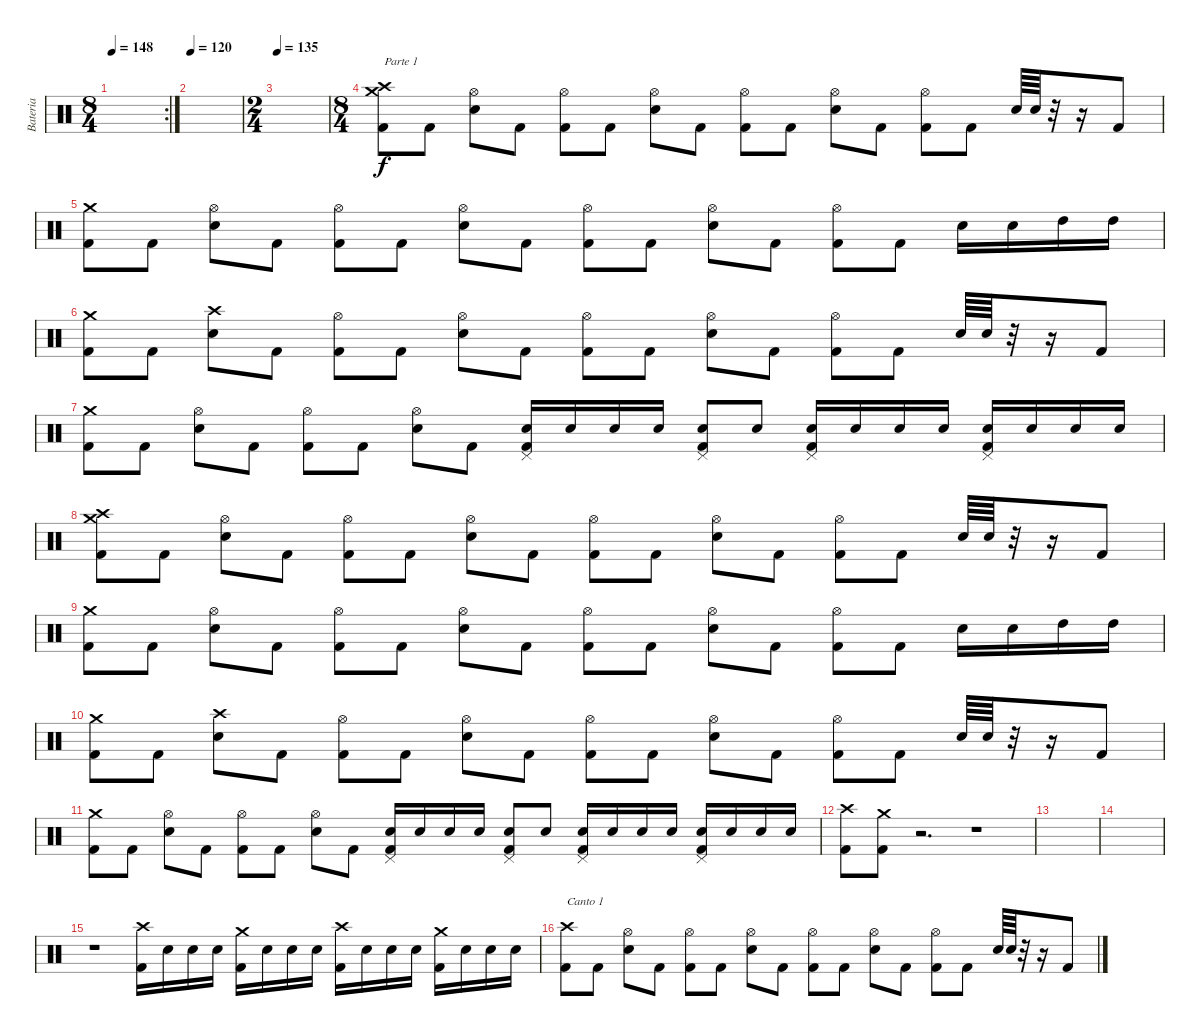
\track ("Bateria" "Bateria") {instrument percussion}
\staff {score}
\articulation defaults
\rc 2
\ts (8 4)
\tempo 148
\tempo 120
\tempo 148
\clef neutral
\ks c
|
\tempo 120
|
\ts (2 4)
\tempo 135
|
\ts (8 4)
("Kick (hit) 2" "Crash medium (hit)" "Crash high (hit)").8{txt "Parte 1"} "Kick (hit) 2".8 ("Electric Snare (hit)" "Hi-Hat (open)").8 "Kick (hit) 2".8 ("Kick (hit) 2" "Hi-Hat (open)").8 "Kick (hit) 2".8 ("Electric Snare (hit)" "Hi-Hat (open)").8 "Kick (hit) 2".8 ("Kick (hit) 2" "Hi-Hat (open)").8 "Kick (hit) 2".8 ("Electric Snare (hit)" "Hi-Hat (open)").8 "Kick (hit) 2".8 ("Kick (hit) 2" "Hi-Hat (open)").8 "Kick (hit) 2".8 "Electric Snare (hit)".64 "Electric Snare (hit)".64 r.32 r.16 "Kick (hit) 2".8 |
("Kick (hit) 2" "Crash medium (hit)").8 "Kick (hit) 2".8 ("Electric Snare (hit)" "Hi-Hat (open)").8 "Kick (hit) 2".8 ("Kick (hit) 2" "Hi-Hat (open)").8 "Kick (hit) 2".8 ("Electric Snare (hit)" "Hi-Hat (open)").8 "Kick (hit) 2".8 ("Kick (hit) 2" "Hi-Hat (open)").8 "Kick (hit) 2".8 ("Electric Snare (hit)" "Hi-Hat (open)").8 "Kick (hit) 2".8 ("Kick (hit) 2" "Hi-Hat (open)").8 "Kick (hit) 2".8 "Electric Snare (hit)".16 "Electric Snare (hit)".16 "High Tom (hit)".16 "High Tom (hit)".16 |
("Kick (hit) 2" "Crash medium (hit)").8 "Kick (hit) 2".8 ("Electric Snare (hit)" "Crash high (hit)").8 "Kick (hit) 2".8 ("Kick (hit) 2" "Hi-Hat (open)").8 "Kick (hit) 2".8 ("Electric Snare (hit)" "Hi-Hat (open)").8 "Kick (hit) 2".8 ("Kick (hit) 2" "Hi-Hat (open)").8 "Kick (hit) 2".8 ("Electric Snare (hit)" "Hi-Hat (open)").8 "Kick (hit) 2".8 ("Kick (hit) 2" "Hi-Hat (open)").8 "Kick (hit) 2".8 "Electric Snare (hit)".64 "Electric Snare (hit)".64 r.32 r.16 "Kick (hit) 2".8 |
("Kick (hit) 2" "Crash medium (hit)").8 "Kick (hit) 2".8 ("Electric Snare (hit)" "Hi-Hat (open)").8 "Kick (hit) 2".8 ("Kick (hit) 2" "Hi-Hat (open)").8 "Kick (hit) 2".8 ("Electric Snare (hit)" "Hi-Hat (open)").8 "Kick (hit) 2".8 ("Kick (hit) 2" "Electric Snare (hit)" "Pedal Hi-Hat (hit)").16 "Electric Snare (hit)".16 "Electric Snare (hit)".16 "Electric Snare (hit)".16 ("Kick (hit) 2" "Electric Snare (hit)" "Pedal Hi-Hat (hit)").8 "Electric Snare (hit)".8 ("Kick (hit) 2" "Electric Snare (hit)" "Pedal Hi-Hat (hit)").16 "Electric Snare (hit)".16 "Electric Snare (hit)".16 "Electric Snare (hit)".16 ("Kick (hit) 2" "Electric Snare (hit)" "Pedal Hi-Hat (hit)").16 "Electric Snare (hit)".16 "Electric Snare (hit)".16 "Electric Snare (hit)".16 |
("Kick (hit) 2" "Crash medium (hit)" "Crash high (hit)").8 "Kick (hit) 2".8 ("Electric Snare (hit)" "Hi-Hat (open)").8 "Kick (hit) 2".8 ("Kick (hit) 2" "Hi-Hat (open)").8 "Kick (hit) 2".8 ("Electric Snare (hit)" "Hi-Hat (open)").8 "Kick (hit) 2".8 ("Kick (hit) 2" "Hi-Hat (open)").8 "Kick (hit) 2".8 ("Electric Snare (hit)" "Hi-Hat (open)").8 "Kick (hit) 2".8 ("Kick (hit) 2" "Hi-Hat (open)").8 "Kick (hit) 2".8 "Electric Snare (hit)".64 "Electric Snare (hit)".64 r.32 r.16 "Kick (hit) 2".8 |
("Kick (hit) 2" "Crash medium (hit)").8 "Kick (hit) 2".8 ("Electric Snare (hit)" "Hi-Hat (open)").8 "Kick (hit) 2".8 ("Kick (hit) 2" "Hi-Hat (open)").8 "Kick (hit) 2".8 ("Electric Snare (hit)" "Hi-Hat (open)").8 "Kick (hit) 2".8 ("Kick (hit) 2" "Hi-Hat (open)").8 "Kick (hit) 2".8 ("Electric Snare (hit)" "Hi-Hat (open)").8 "Kick (hit) 2".8 ("Kick (hit) 2" "Hi-Hat (open)").8 "Kick (hit) 2".8 "Electric Snare (hit)".16 "Electric Snare (hit)".16 "High Tom (hit)".16 "High Tom (hit)".16 |
("Kick (hit) 2" "Crash medium (hit)").8 "Kick (hit) 2".8 ("Electric Snare (hit)" "Crash high (hit)").8 "Kick (hit) 2".8 ("Kick (hit) 2" "Hi-Hat (open)").8 "Kick (hit) 2".8 ("Electric Snare (hit)" "Hi-Hat (open)").8 "Kick (hit) 2".8 ("Kick (hit) 2" "Hi-Hat (open)").8 "Kick (hit) 2".8 ("Electric Snare (hit)" "Hi-Hat (open)").8 "Kick (hit) 2".8 ("Kick (hit) 2" "Hi-Hat (open)").8 "Kick (hit) 2".8 "Electric Snare (hit)".64 "Electric Snare (hit)".64 r.32 r.16 "Kick (hit) 2".8 |
("Kick (hit) 2" "Crash medium (hit)").8 "Kick (hit) 2".8 ("Electric Snare (hit)" "Hi-Hat (open)").8 "Kick (hit) 2".8 ("Kick (hit) 2" "Hi-Hat (open)").8 "Kick (hit) 2".8 ("Electric Snare (hit)" "Hi-Hat (open)").8 "Kick (hit) 2".8 ("Kick (hit) 2" "Electric Snare (hit)" "Pedal Hi-Hat (hit)").16 "Electric Snare (hit)".16 "Electric Snare (hit)".16 "Electric Snare (hit)".16 ("Kick (hit) 2" "Electric Snare (hit)" "Pedal Hi-Hat (hit)").8 "Electric Snare (hit)".8 ("Kick (hit) 2" "Electric Snare (hit)" "Pedal Hi-Hat (hit)").16 "Electric Snare (hit)".16 "Electric Snare (hit)".16 "Electric Snare (hit)".16 ("Kick (hit) 2" "Electric Snare (hit)" "Pedal Hi-Hat (hit)").16 "Electric Snare (hit)".16 "Electric Snare (hit)".16 "Electric Snare (hit)".16 |
("Kick (hit) 2" "Crash high (hit)").8 ("Kick (hit) 2" "Crash medium (hit)").8 r.2{d} r.1 |
|
|
r.1 ("Kick (hit) 2" "Crash high (hit)").16 "Electric Snare (hit)".16 "Electric Snare (hit)".16 "Electric Snare (hit)".16 ("Kick (hit) 2" "Crash medium (hit)").16 "Electric Snare (hit)".16 "Electric Snare (hit)".16 "Electric Snare (hit)".16 ("Kick (hit) 2" "Crash high (hit)").16 "Electric Snare (hit)".16 "Electric Snare (hit)".16 "Electric Snare (hit)".16 ("Kick (hit) 2" "Crash medium (hit)").16 "Electric Snare (hit)".16 "Electric Snare (hit)".16 "Electric Snare (hit)".16 |
("Kick (hit) 2" "Crash high (hit)").8{txt "Canto 1"} "Kick (hit) 2".8 ("Electric Snare (hit)" "Hi-Hat (open)").8 "Kick (hit) 2".8 ("Kick (hit) 2" "Hi-Hat (open)").8 "Kick (hit) 2".8 ("Electric Snare (hit)" "Hi-Hat (open)").8 "Kick (hit) 2".8 ("Kick (hit) 2" "Hi-Hat (open)").8 "Kick (hit) 2".8 ("Electric Snare (hit)" "Hi-Hat (open)").8 "Kick (hit) 2".8 ("Kick (hit) 2" "Hi-Hat (open)").8 "Kick (hit) 2".8 "Electric Snare (hit)".64 "Electric Snare (hit)".64 r.32 r.16 "Kick (hit) 2".8
